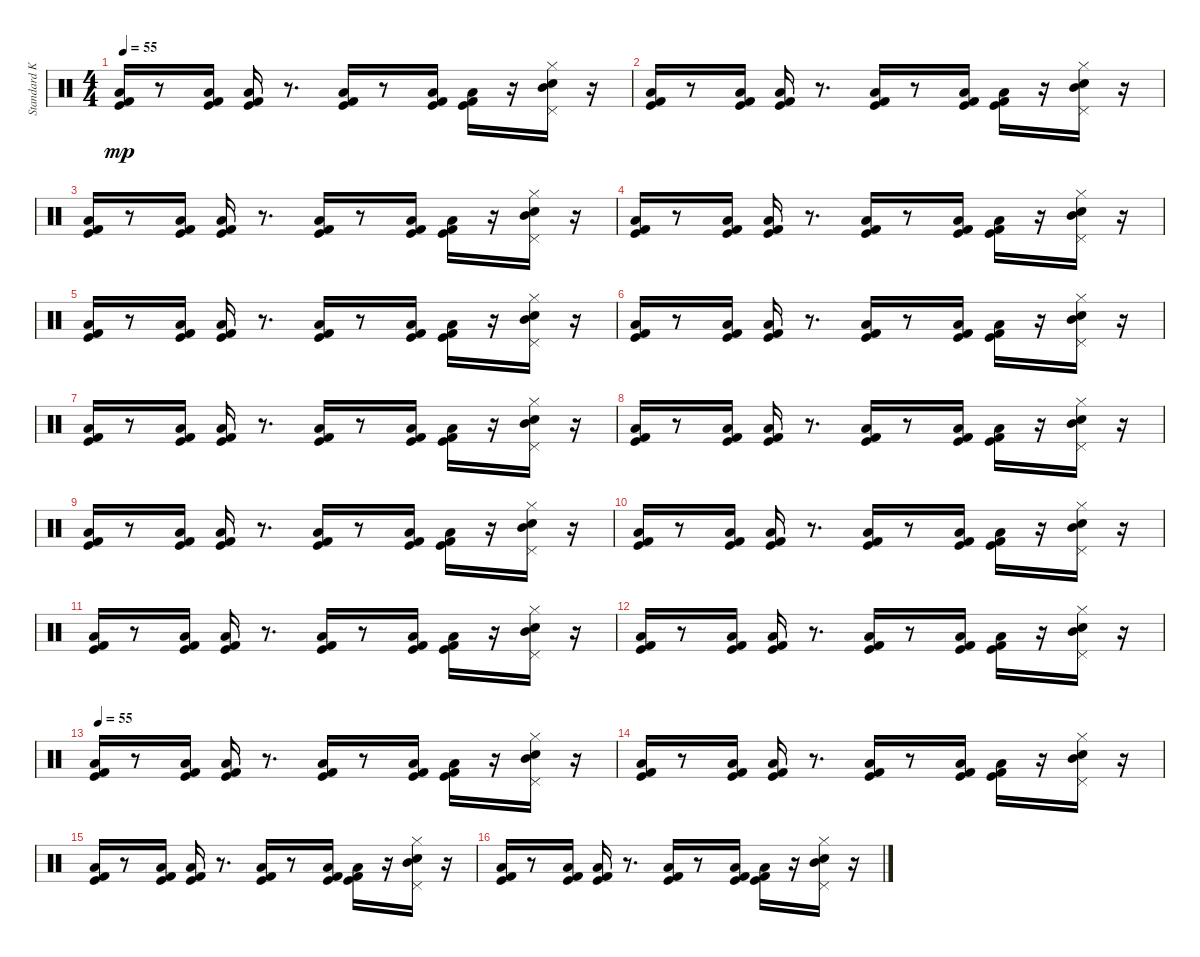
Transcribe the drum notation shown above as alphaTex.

\track ("Standard Kit" "Standard K") {instrument percussion}
\staff {score}
\articulation defaults
\ts (4 4)
\tempo 55
\clef neutral
\ks c
("Kick (hit)" "Kick (hit) 2" "Low Floor Tom (hit)").16{dy mp} r.8 ("Kick (hit)" "Kick (hit) 2" "Low Floor Tom (hit)").16 ("Kick (hit)" "Kick (hit) 2" "Low Floor Tom (hit)").16 r.8{d} ("Kick (hit)" "Kick (hit) 2" "Low Floor Tom (hit)").16 r.8 ("Kick (hit)" "Kick (hit) 2" "Low Floor Tom (hit)").16 ("Kick (hit)" "Kick (hit) 2" "Low Floor Tom (hit)").16 r.16 ("Electric Snare (hit)" "Pedal Hi-Hat (hit)" "Mid Tom (hit)" "Hi-Hat (closed)").16 r.16 |
("Kick (hit)" "Kick (hit) 2" "Low Floor Tom (hit)").16 r.8 ("Kick (hit)" "Kick (hit) 2" "Low Floor Tom (hit)").16 ("Kick (hit)" "Kick (hit) 2" "Low Floor Tom (hit)").16 r.8{d} ("Kick (hit)" "Kick (hit) 2" "Low Floor Tom (hit)").16 r.8 ("Kick (hit)" "Kick (hit) 2" "Low Floor Tom (hit)").16 ("Kick (hit)" "Kick (hit) 2" "Low Floor Tom (hit)").16 r.16 ("Electric Snare (hit)" "Pedal Hi-Hat (hit)" "Mid Tom (hit)" "Hi-Hat (closed)").16 r.16 |
("Kick (hit)" "Kick (hit) 2" "Low Floor Tom (hit)").16 r.8 ("Kick (hit)" "Kick (hit) 2" "Low Floor Tom (hit)").16 ("Kick (hit)" "Kick (hit) 2" "Low Floor Tom (hit)").16 r.8{d} ("Kick (hit)" "Kick (hit) 2" "Low Floor Tom (hit)").16 r.8 ("Kick (hit)" "Kick (hit) 2" "Low Floor Tom (hit)").16 ("Kick (hit)" "Kick (hit) 2" "Low Floor Tom (hit)").16 r.16 ("Electric Snare (hit)" "Pedal Hi-Hat (hit)" "Mid Tom (hit)" "Hi-Hat (closed)").16 r.16 |
("Kick (hit)" "Kick (hit) 2" "Low Floor Tom (hit)").16 r.8 ("Kick (hit)" "Kick (hit) 2" "Low Floor Tom (hit)").16 ("Kick (hit)" "Kick (hit) 2" "Low Floor Tom (hit)").16 r.8{d} ("Kick (hit)" "Kick (hit) 2" "Low Floor Tom (hit)").16 r.8 ("Kick (hit)" "Kick (hit) 2" "Low Floor Tom (hit)").16 ("Kick (hit)" "Kick (hit) 2" "Low Floor Tom (hit)").16 r.16 ("Electric Snare (hit)" "Pedal Hi-Hat (hit)" "Mid Tom (hit)" "Hi-Hat (closed)").16 r.16 |
("Kick (hit)" "Kick (hit) 2" "Low Floor Tom (hit)").16 r.8 ("Kick (hit)" "Kick (hit) 2" "Low Floor Tom (hit)").16 ("Kick (hit)" "Kick (hit) 2" "Low Floor Tom (hit)").16 r.8{d} ("Kick (hit)" "Kick (hit) 2" "Low Floor Tom (hit)").16 r.8 ("Kick (hit)" "Kick (hit) 2" "Low Floor Tom (hit)").16 ("Kick (hit)" "Kick (hit) 2" "Low Floor Tom (hit)").16 r.16 ("Electric Snare (hit)" "Pedal Hi-Hat (hit)" "Mid Tom (hit)" "Hi-Hat (closed)").16 r.16 |
("Kick (hit)" "Kick (hit) 2" "Low Floor Tom (hit)").16 r.8 ("Kick (hit)" "Kick (hit) 2" "Low Floor Tom (hit)").16 ("Kick (hit)" "Kick (hit) 2" "Low Floor Tom (hit)").16 r.8{d} ("Kick (hit)" "Kick (hit) 2" "Low Floor Tom (hit)").16 r.8 ("Kick (hit)" "Kick (hit) 2" "Low Floor Tom (hit)").16 ("Kick (hit)" "Kick (hit) 2" "Low Floor Tom (hit)").16 r.16 ("Electric Snare (hit)" "Pedal Hi-Hat (hit)" "Mid Tom (hit)" "Hi-Hat (closed)").16 r.16 |
("Kick (hit)" "Kick (hit) 2" "Low Floor Tom (hit)").16 r.8 ("Kick (hit)" "Kick (hit) 2" "Low Floor Tom (hit)").16 ("Kick (hit)" "Kick (hit) 2" "Low Floor Tom (hit)").16 r.8{d} ("Kick (hit)" "Kick (hit) 2" "Low Floor Tom (hit)").16 r.8 ("Kick (hit)" "Kick (hit) 2" "Low Floor Tom (hit)").16 ("Kick (hit)" "Kick (hit) 2" "Low Floor Tom (hit)").16 r.16 ("Electric Snare (hit)" "Pedal Hi-Hat (hit)" "Mid Tom (hit)" "Hi-Hat (closed)").16 r.16 |
("Kick (hit)" "Kick (hit) 2" "Low Floor Tom (hit)").16 r.8 ("Kick (hit)" "Kick (hit) 2" "Low Floor Tom (hit)").16 ("Kick (hit)" "Kick (hit) 2" "Low Floor Tom (hit)").16 r.8{d} ("Kick (hit)" "Kick (hit) 2" "Low Floor Tom (hit)").16 r.8 ("Kick (hit)" "Kick (hit) 2" "Low Floor Tom (hit)").16 ("Kick (hit)" "Kick (hit) 2" "Low Floor Tom (hit)").16 r.16 ("Electric Snare (hit)" "Pedal Hi-Hat (hit)" "Mid Tom (hit)" "Hi-Hat (closed)").16 r.16 |
("Kick (hit)" "Kick (hit) 2" "Low Floor Tom (hit)").16 r.8 ("Kick (hit)" "Kick (hit) 2" "Low Floor Tom (hit)").16 ("Kick (hit)" "Kick (hit) 2" "Low Floor Tom (hit)").16 r.8{d} ("Kick (hit)" "Kick (hit) 2" "Low Floor Tom (hit)").16 r.8 ("Kick (hit)" "Kick (hit) 2" "Low Floor Tom (hit)").16 ("Kick (hit)" "Kick (hit) 2" "Low Floor Tom (hit)").16 r.16 ("Electric Snare (hit)" "Pedal Hi-Hat (hit)" "Mid Tom (hit)" "Hi-Hat (closed)").16 r.16 |
("Kick (hit)" "Kick (hit) 2" "Low Floor Tom (hit)").16 r.8 ("Kick (hit)" "Kick (hit) 2" "Low Floor Tom (hit)").16 ("Kick (hit)" "Kick (hit) 2" "Low Floor Tom (hit)").16 r.8{d} ("Kick (hit)" "Kick (hit) 2" "Low Floor Tom (hit)").16 r.8 ("Kick (hit)" "Kick (hit) 2" "Low Floor Tom (hit)").16 ("Kick (hit)" "Kick (hit) 2" "Low Floor Tom (hit)").16 r.16 ("Electric Snare (hit)" "Pedal Hi-Hat (hit)" "Mid Tom (hit)" "Hi-Hat (closed)").16 r.16 |
("Kick (hit)" "Kick (hit) 2" "Low Floor Tom (hit)").16 r.8 ("Kick (hit)" "Kick (hit) 2" "Low Floor Tom (hit)").16 ("Kick (hit)" "Kick (hit) 2" "Low Floor Tom (hit)").16 r.8{d} ("Kick (hit)" "Kick (hit) 2" "Low Floor Tom (hit)").16 r.8 ("Kick (hit)" "Kick (hit) 2" "Low Floor Tom (hit)").16 ("Kick (hit)" "Kick (hit) 2" "Low Floor Tom (hit)").16 r.16 ("Electric Snare (hit)" "Pedal Hi-Hat (hit)" "Mid Tom (hit)" "Hi-Hat (closed)").16 r.16 |
("Kick (hit)" "Kick (hit) 2" "Low Floor Tom (hit)").16 r.8 ("Kick (hit)" "Kick (hit) 2" "Low Floor Tom (hit)").16 ("Kick (hit)" "Kick (hit) 2" "Low Floor Tom (hit)").16 r.8{d} ("Kick (hit)" "Kick (hit) 2" "Low Floor Tom (hit)").16 r.8 ("Kick (hit)" "Kick (hit) 2" "Low Floor Tom (hit)").16 ("Kick (hit)" "Kick (hit) 2" "Low Floor Tom (hit)").16 r.16 ("Electric Snare (hit)" "Pedal Hi-Hat (hit)" "Mid Tom (hit)" "Hi-Hat (closed)").16 r.16 |
\tempo 55
("Kick (hit)" "Kick (hit) 2" "Low Floor Tom (hit)").16 r.8 ("Kick (hit)" "Kick (hit) 2" "Low Floor Tom (hit)").16 ("Kick (hit)" "Kick (hit) 2" "Low Floor Tom (hit)").16 r.8{d} ("Kick (hit)" "Kick (hit) 2" "Low Floor Tom (hit)").16 r.8 ("Kick (hit)" "Kick (hit) 2" "Low Floor Tom (hit)").16 ("Kick (hit)" "Kick (hit) 2" "Low Floor Tom (hit)").16 r.16 ("Electric Snare (hit)" "Pedal Hi-Hat (hit)" "Mid Tom (hit)" "Hi-Hat (closed)").16 r.16 |
("Kick (hit)" "Kick (hit) 2" "Low Floor Tom (hit)").16 r.8 ("Kick (hit)" "Kick (hit) 2" "Low Floor Tom (hit)").16 ("Kick (hit)" "Kick (hit) 2" "Low Floor Tom (hit)").16 r.8{d} ("Kick (hit)" "Kick (hit) 2" "Low Floor Tom (hit)").16 r.8 ("Kick (hit)" "Kick (hit) 2" "Low Floor Tom (hit)").16 ("Kick (hit)" "Kick (hit) 2" "Low Floor Tom (hit)").16 r.16 ("Electric Snare (hit)" "Pedal Hi-Hat (hit)" "Mid Tom (hit)" "Hi-Hat (closed)").16 r.16 |
("Kick (hit)" "Kick (hit) 2" "Low Floor Tom (hit)").16 r.8 ("Kick (hit)" "Kick (hit) 2" "Low Floor Tom (hit)").16 ("Kick (hit)" "Kick (hit) 2" "Low Floor Tom (hit)").16 r.8{d} ("Kick (hit)" "Kick (hit) 2" "Low Floor Tom (hit)").16 r.8 ("Kick (hit)" "Kick (hit) 2" "Low Floor Tom (hit)").16 ("Kick (hit)" "Kick (hit) 2" "Low Floor Tom (hit)").16 r.16 ("Electric Snare (hit)" "Pedal Hi-Hat (hit)" "Mid Tom (hit)" "Hi-Hat (closed)").16 r.16 |
("Kick (hit)" "Kick (hit) 2" "Low Floor Tom (hit)").16 r.8 ("Kick (hit)" "Kick (hit) 2" "Low Floor Tom (hit)").16 ("Kick (hit)" "Kick (hit) 2" "Low Floor Tom (hit)").16 r.8{d} ("Kick (hit)" "Kick (hit) 2" "Low Floor Tom (hit)").16 r.8 ("Kick (hit)" "Kick (hit) 2" "Low Floor Tom (hit)").16 ("Kick (hit)" "Kick (hit) 2" "Low Floor Tom (hit)").16 r.16 ("Electric Snare (hit)" "Pedal Hi-Hat (hit)" "Mid Tom (hit)" "Hi-Hat (closed)").16 r.16
